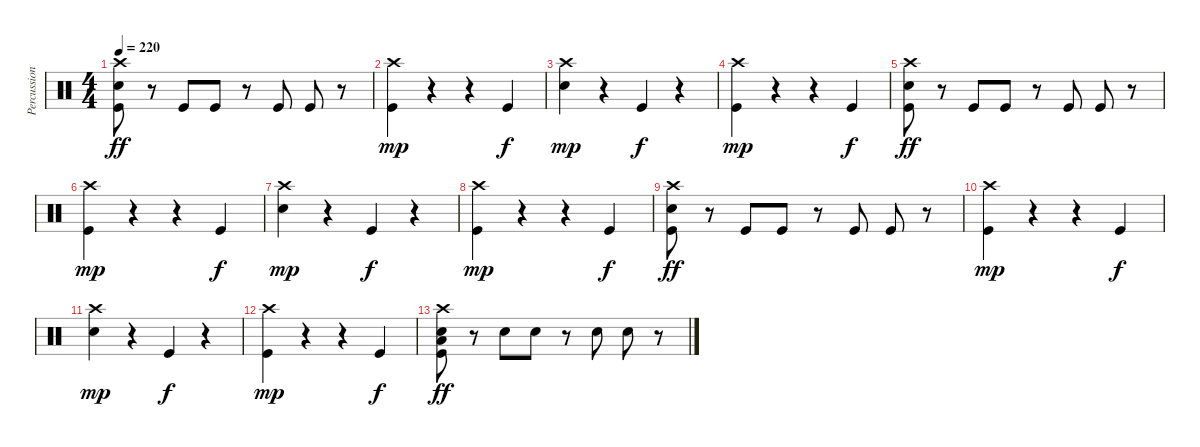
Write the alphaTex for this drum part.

\track ("Percussion" "Percussion") {instrument percussion}
\staff {score}
\articulation defaults
\ts (4 4)
\tempo 220
\clef neutral
\ks c
("Crash high (hit)" "Electric Snare (hit)" "Kick (hit)").8{dy ff} r.8 "Kick (hit)".8 "Kick (hit)".8 r.8 "Kick (hit)".8 "Kick (hit)".8 r.8 |
("Crash high (hit)" "Kick (hit)").4{dy mp} r.4 r.4 "Kick (hit)".4{dy f} |
("Crash high (hit)" "Electric Snare (hit)").4{dy mp} r.4 "Kick (hit)".4{dy f} r.4 |
("Crash high (hit)" "Kick (hit)").4{dy mp} r.4 r.4 "Kick (hit)".4{dy f} |
("Crash high (hit)" "Electric Snare (hit)" "Kick (hit)").8{dy ff} r.8 "Kick (hit)".8 "Kick (hit)".8 r.8 "Kick (hit)".8 "Kick (hit)".8 r.8 |
("Crash high (hit)" "Kick (hit)").4{dy mp} r.4 r.4 "Kick (hit)".4{dy f} |
("Crash high (hit)" "Electric Snare (hit)").4{dy mp} r.4 "Kick (hit)".4{dy f} r.4 |
("Crash high (hit)" "Kick (hit)").4{dy mp} r.4 r.4 "Kick (hit)".4{dy f} |
("Crash high (hit)" "Electric Snare (hit)" "Kick (hit)").8{dy ff} r.8 "Kick (hit)".8 "Kick (hit)".8 r.8 "Kick (hit)".8 "Kick (hit)".8 r.8 |
("Crash high (hit)" "Kick (hit)").4{dy mp} r.4 r.4 "Kick (hit)".4{dy f} |
("Crash high (hit)" "Electric Snare (hit)").4{dy mp} r.4 "Kick (hit)".4{dy f} r.4 |
("Crash high (hit)" "Kick (hit)").4{dy mp} r.4 r.4 "Kick (hit)".4{dy f} |
("Crash high (hit)" "Electric Snare (hit)" "Low Floor Tom (hit)" "Kick (hit)").8{dy ff} r.8 "Electric Snare (hit)".8 "Electric Snare (hit)".8 r.8 "Electric Snare (hit)".8 "Electric Snare (hit)".8 r.8
